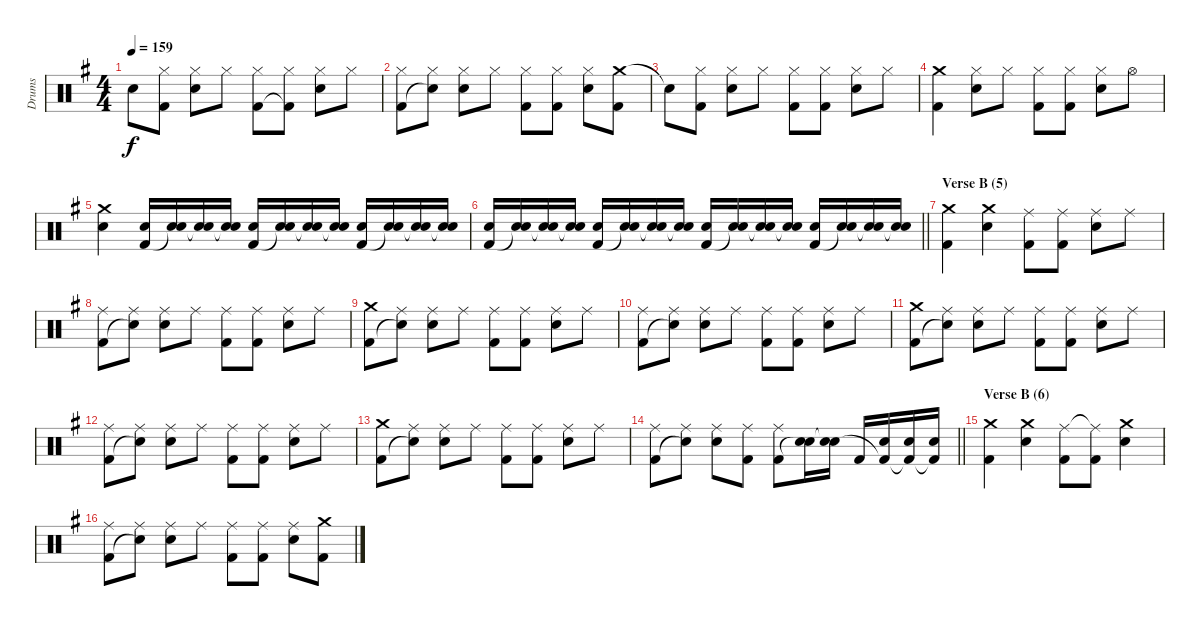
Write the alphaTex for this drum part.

\track ("Drums" "Drums") {instrument percussion}
\staff {score}
\articulation defaults
\ts (4 4)
\tempo 159
\clef neutral
\ks g "Snare (hit)"{t}.8{dy f}
("Hi-Hat (closed)" "Kick (hit) 2").8 ("Hi-Hat (closed)" "Electric Snare (hit)").8 "Hi-Hat (closed)".8 ("Hi-Hat (closed)" "Kick (hit) 2").8 ("Hi-Hat (closed)" "Kick (hit) 2"{t}).8 ("Hi-Hat (closed)" "Electric Snare (hit)").8 "Hi-Hat (closed)".8 |
("Hi-Hat (closed)" "Kick (hit) 2").8 ("Hi-Hat (closed)" "Snare (hit)"{t}).8 ("Hi-Hat (closed)" "Electric Snare (hit)").8 "Hi-Hat (closed)".8 ("Hi-Hat (closed)" "Kick (hit) 2").8 ("Hi-Hat (closed)" "Kick (hit) 2").8 ("Hi-Hat (closed)" "Electric Snare (hit)").8 ("Crash medium (hit)" "Kick (hit) 2").8 |
"Snare (hit)"{t}.8 ("Hi-Hat (closed)" "Kick (hit) 2").8 ("Hi-Hat (closed)" "Electric Snare (hit)").8 "Hi-Hat (closed)".8 ("Hi-Hat (closed)" "Kick (hit) 2").8 ("Hi-Hat (closed)" "Kick (hit) 2").8 ("Hi-Hat (closed)" "Electric Snare (hit)").8 "Hi-Hat (closed)".8 |
("Crash medium (hit)" "Kick (hit) 2").4 ("Hi-Hat (closed)" "Electric Snare (hit)").8 "Hi-Hat (closed)".8 ("Hi-Hat (closed)" "Kick (hit) 2").8 ("Hi-Hat (closed)" "Kick (hit) 2").8 ("Hi-Hat (closed)" "Electric Snare (hit)").8 "Hi-Hat (open)".8 |
("Crash medium (hit)" "Electric Snare (hit)").4 ("Electric Snare (hit)" "Kick (hit) 2").16 ("Electric Snare (hit)" "Snare (hit)"{t}).16 ("Electric Snare (hit)" "Snare (hit)"{t}).16 ("Electric Snare (hit)" "Snare (hit)"{t}).16 ("Electric Snare (hit)" "Kick (hit) 2").16 ("Electric Snare (hit)" "Snare (hit)"{t}).16 ("Electric Snare (hit)" "Snare (hit)"{t}).16 ("Electric Snare (hit)" "Snare (hit)"{t}).16 ("Electric Snare (hit)" "Kick (hit) 2").16 ("Electric Snare (hit)" "Snare (hit)"{t}).16 ("Electric Snare (hit)" "Snare (hit)"{t}).16 ("Electric Snare (hit)" "Snare (hit)"{t}).16 |
\barLineRight lightlight
("Electric Snare (hit)" "Kick (hit) 2").16 ("Electric Snare (hit)" "Snare (hit)"{t}).16 ("Electric Snare (hit)" "Snare (hit)"{t}).16 ("Electric Snare (hit)" "Snare (hit)"{t}).16 ("Electric Snare (hit)" "Kick (hit) 2").16 ("Electric Snare (hit)" "Snare (hit)"{t}).16 ("Electric Snare (hit)" "Snare (hit)"{t}).16 ("Electric Snare (hit)" "Snare (hit)"{t}).16 ("Electric Snare (hit)" "Kick (hit) 2").16 ("Electric Snare (hit)" "Snare (hit)"{t}).16 ("Electric Snare (hit)" "Snare (hit)"{t}).16 ("Electric Snare (hit)" "Snare (hit)"{t}).16 ("Electric Snare (hit)" "Kick (hit) 2").16 ("Electric Snare (hit)" "Snare (hit)"{t}).16 ("Electric Snare (hit)" "Snare (hit)"{t}).16 ("Electric Snare (hit)" "Snare (hit)"{t}).16 |
\section ("" "Verse B (5)")
("Crash medium (hit)" "Kick (hit) 2").4 ("Crash medium (hit)" "Electric Snare (hit)").4 ("Ride (middle)" "Kick (hit) 2").8 ("Ride (middle)" "Kick (hit) 2").8 ("Ride (middle)" "Electric Snare (hit)").8 "Ride (middle)".8 |
("Ride (middle)" "Kick (hit) 2").8 ("Ride (middle)" "Snare (hit)"{t}).8 ("Ride (middle)" "Electric Snare (hit)").8 "Ride (middle)".8 ("Ride (middle)" "Kick (hit) 2").8 ("Ride (middle)" "Kick (hit) 2").8 ("Ride (middle)" "Electric Snare (hit)").8 "Ride (middle)".8 |
("Crash medium (hit)" "Kick (hit) 2").8 ("Ride (middle)" "Snare (hit)"{t}).8 ("Ride (middle)" "Electric Snare (hit)").8 "Ride (middle)".8 ("Ride (middle)" "Kick (hit) 2").8 ("Ride (middle)" "Kick (hit) 2").8 ("Ride (middle)" "Electric Snare (hit)").8 "Ride (middle)".8 |
("Ride (middle)" "Kick (hit) 2").8 ("Ride (middle)" "Snare (hit)"{t}).8 ("Ride (middle)" "Electric Snare (hit)").8 "Ride (middle)".8 ("Ride (middle)" "Kick (hit) 2").8 ("Ride (middle)" "Kick (hit) 2").8 ("Ride (middle)" "Electric Snare (hit)").8 "Ride (middle)".8 |
("Crash medium (hit)" "Kick (hit) 2").8 ("Ride (middle)" "Snare (hit)"{t}).8 ("Ride (middle)" "Electric Snare (hit)").8 "Ride (middle)".8 ("Ride (middle)" "Kick (hit) 2").8 ("Ride (middle)" "Kick (hit) 2").8 ("Ride (middle)" "Electric Snare (hit)").8 "Ride (middle)".8 |
("Ride (middle)" "Kick (hit) 2").8 ("Ride (middle)" "Snare (hit)"{t}).8 ("Ride (middle)" "Electric Snare (hit)").8 "Ride (middle)".8 ("Ride (middle)" "Kick (hit) 2").8 ("Ride (middle)" "Kick (hit) 2").8 ("Ride (middle)" "Electric Snare (hit)").8 "Ride (middle)".8 |
("Crash medium (hit)" "Kick (hit) 2").8 ("Ride (middle)" "Snare (hit)"{t}).8 ("Ride (middle)" "Electric Snare (hit)").8 "Ride (middle)".8 ("Ride (middle)" "Kick (hit) 2").8 ("Ride (middle)" "Kick (hit) 2").8 ("Ride (middle)" "Electric Snare (hit)").8 "Ride (middle)".8 |
\barLineRight lightlight
("Ride (middle)" "Kick (hit) 2").8 ("Ride (middle)" "Snare (hit)"{t}).8 ("Ride (middle)" "Electric Snare (hit)").8 ("Ride (middle)" "Kick (hit) 2").8 ("Ride (middle)" "Kick (hit) 2").8 ("Electric Snare (hit)" "Snare (hit)"{t}).16 ("Electric Snare (hit)" "Snare (hit)"{t}).16 "Kick (hit) 2".16 ("Electric Snare (hit)" "Kick (hit) 2"{t}).16 ("Electric Snare (hit)" "Kick (hit) 2"{t}).16 ("Electric Snare (hit)" "Kick (hit) 2"{t}).16 |
\section ("" "Verse B (6)")
("Crash medium (hit)" "Kick (hit) 2").4 ("Crash medium (hit)" "Electric Snare (hit)").4 ("Ride (middle)" "Kick (hit) 2").8 ("Ride (middle)"{t} "Kick (hit) 2").8 ("Crash medium (hit)" "Electric Snare (hit)").4 |
("Ride (middle)" "Kick (hit) 2").8 ("Ride (middle)" "Snare (hit)"{t}).8 ("Ride (middle)" "Electric Snare (hit)").8 "Ride (middle)".8 ("Ride (middle)" "Kick (hit) 2").8 ("Ride (middle)" "Kick (hit) 2").8 ("Ride (middle)" "Electric Snare (hit)").8 ("Crash medium (hit)" "Kick (hit) 2").8
